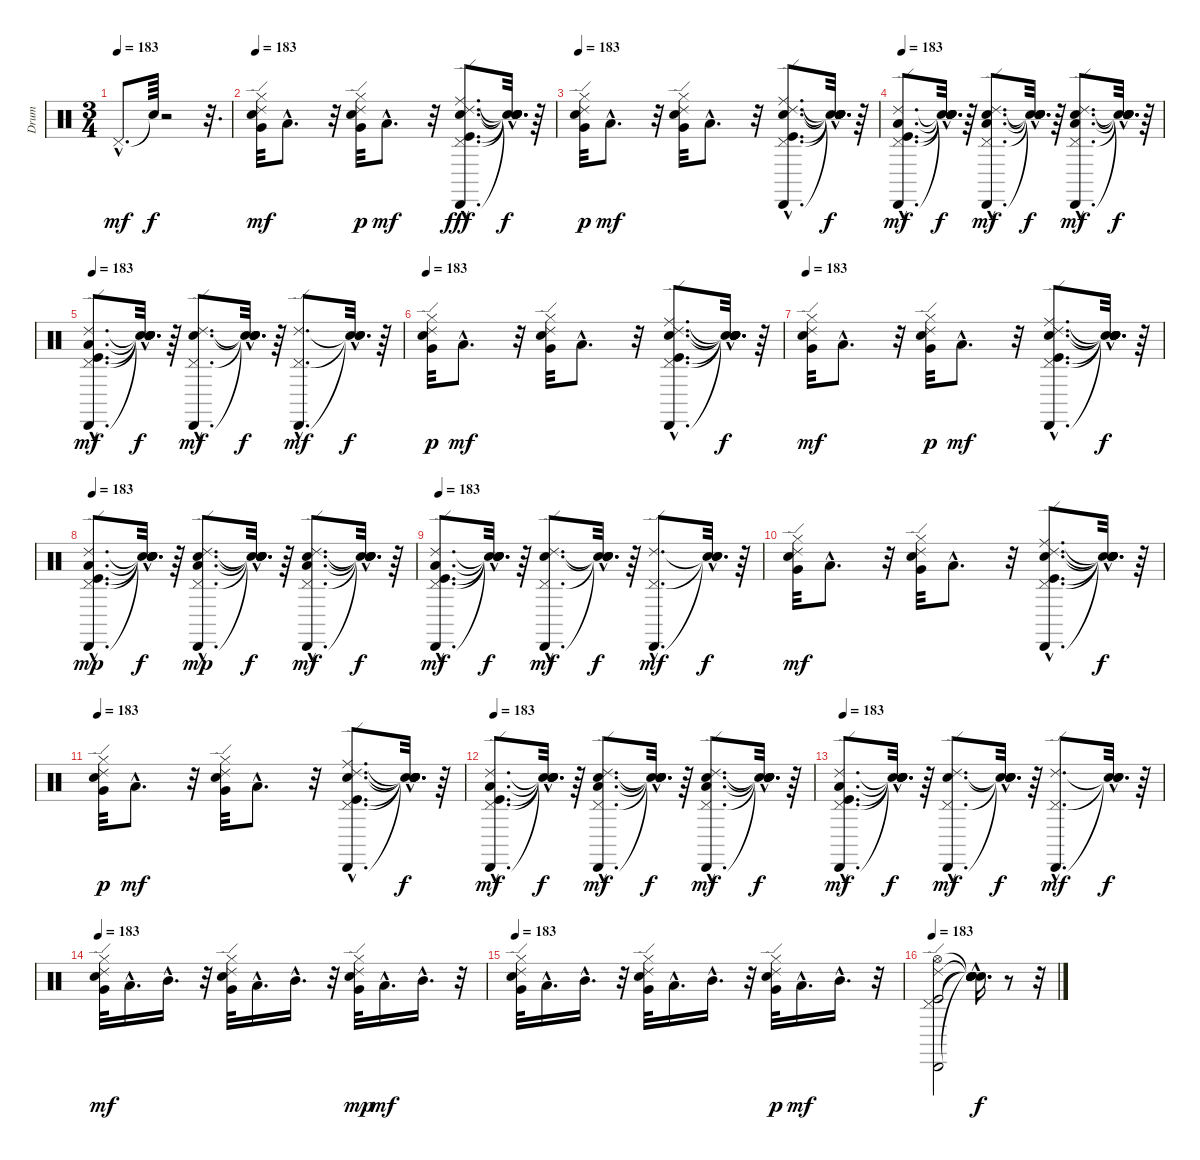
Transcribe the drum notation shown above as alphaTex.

\track ("Drum" "Drum") {instrument percussion}
\staff {score}
\articulation defaults
\ts (3 4)
\tempo 183
\clef neutral
\ks c "Pedal Hi-Hat (hit)"{hac}.8{d dy mf} "Snare (hit)"{t}.64{dy f}
r.2 r.32{d} |
\tempo 183
("Hi-Hat (closed)" "Very Low Tom (hit)" "Electric Snare (hit)" "Ride (edge) 2").32{dy mf} "Low Tom (hit)"{hac}.8{d} r.32 ("Electric Snare (hit)" "Ride (edge) 2" "Very Low Tom (hit)" "Hi-Hat (closed)").32{dy p} "Low Tom (hit)"{hac}.8{d dy mf} r.32 ("Pedal Hi-Hat (hit)"{hac} "Kick (hit)"{hac} "Cabasa (hit)"{hac} "Electric Snare (hit)"{hac} "Ride (middle)"{hac} "Ride (edge) 2"{hac}).8{d dy fff} ("Snare (hit)"{hac t} "Snare (hit)"{hac t} "Snare (hit)"{hac t} "Snare (hit)"{hac t} "Snare (hit)"{hac t} "Snare (hit)"{hac t}).32{d dy f} r.64 |
\tempo 183
("Very Low Tom (hit)" "Hi-Hat (closed)" "Ride (edge) 2" "Electric Snare (hit)").32{dy p} "Low Tom (hit)"{hac}.8{d dy mf} r.32 ("Ride (edge) 2" "Hi-Hat (closed)" "Electric Snare (hit)" "Very Low Tom (hit)").32 "Low Tom (hit)"{hac}.8{d} r.32 ("Ride (edge) 2"{hac} "Ride (middle)"{hac} "Kick (hit)"{hac} "Electric Snare (hit)"{hac} "Pedal Hi-Hat (hit)"{hac} "Cabasa (hit)"{hac}).8{d} ("Snare (hit)"{hac t} "Snare (hit)"{hac t} "Snare (hit)"{hac t} "Snare (hit)"{hac t} "Snare (hit)"{hac t} "Snare (hit)"{hac t}).32{d dy f} r.64 |
\tempo 183
("Ride (edge) 2"{hac} "Kick (hit)"{hac} "Pedal Hi-Hat (hit)"{hac} "Cabasa (hit)"{hac} "Low Tom (hit)"{hac}).8{d dy mf} ("Snare (hit)"{hac t} "Snare (hit)"{hac t} "Snare (hit)"{hac t} "Snare (hit)"{hac t} "Snare (hit)"{hac t}).32{d dy f} r.64 ("Ride (edge) 2"{hac} "Pedal Hi-Hat (hit)"{hac} "Cabasa (hit)"{hac} "Electric Snare (hit)"{hac} "Low Tom (hit)"{hac}).8{d dy mf} ("Snare (hit)"{hac t} "Snare (hit)"{hac t} "Snare (hit)"{hac t} "Snare (hit)"{hac t} "Snare (hit)"{hac t}).32{d dy f} r.64 ("Ride (edge) 2"{hac} "Pedal Hi-Hat (hit)"{hac} "Cabasa (hit)"{hac} "Electric Snare (hit)"{hac} "Low Tom (hit)"{hac}).8{d dy mf} ("Snare (hit)"{hac t} "Snare (hit)"{hac t} "Snare (hit)"{hac t} "Snare (hit)"{hac t} "Snare (hit)"{hac t}).32{d dy f} r.64 |
\tempo 183
("Ride (edge) 2"{hac} "Kick (hit)"{hac} "Pedal Hi-Hat (hit)"{hac} "Cabasa (hit)"{hac} "Low Tom (hit)"{hac}).8{d dy mf} ("Snare (hit)"{hac t} "Snare (hit)"{hac t} "Snare (hit)"{hac t} "Snare (hit)"{hac t} "Snare (hit)"{hac t}).32{d dy f} r.64 ("Ride (edge) 2"{hac} "Pedal Hi-Hat (hit)"{hac} "Cabasa (hit)"{hac} "Electric Snare (hit)"{hac}).8{d dy mf} ("Snare (hit)"{hac t} "Snare (hit)"{hac t} "Snare (hit)"{hac t} "Snare (hit)"{hac t}).32{d dy f} r.64 ("Ride (edge) 2"{hac} "Pedal Hi-Hat (hit)"{hac} "Cabasa (hit)"{hac}).8{d dy mf} ("Snare (hit)"{hac t} "Snare (hit)"{hac t} "Snare (hit)"{hac t}).32{d dy f} r.64 |
\tempo 183
("Ride (edge) 2" "Very Low Tom (hit)" "Hi-Hat (closed)" "Electric Snare (hit)").32{dy p} "Low Tom (hit)"{hac}.8{d dy mf} r.32 ("Ride (edge) 2" "Hi-Hat (closed)" "Very Low Tom (hit)" "Electric Snare (hit)").32 "Low Tom (hit)"{hac}.8{d} r.32 ("Ride (middle)"{hac} "Ride (edge) 2"{hac} "Kick (hit)"{hac} "Pedal Hi-Hat (hit)"{hac} "Cabasa (hit)"{hac} "Electric Snare (hit)"{hac}).8{d} ("Snare (hit)"{hac t} "Snare (hit)"{hac t} "Snare (hit)"{hac t} "Snare (hit)"{hac t} "Snare (hit)"{hac t} "Snare (hit)"{hac t}).32{d dy f} r.64 |
\tempo 183
("Electric Snare (hit)" "Hi-Hat (closed)" "Very Low Tom (hit)" "Ride (edge) 2").32{dy mf} "Low Tom (hit)"{hac}.8{d} r.32 ("Electric Snare (hit)" "Very Low Tom (hit)" "Hi-Hat (closed)" "Ride (edge) 2").32{dy p} "Low Tom (hit)"{hac}.8{d dy mf} r.32 ("Electric Snare (hit)"{hac} "Cabasa (hit)"{hac} "Pedal Hi-Hat (hit)"{hac} "Kick (hit)"{hac} "Ride (edge) 2"{hac} "Ride (middle)"{hac}).8{d} ("Snare (hit)"{hac t} "Snare (hit)"{hac t} "Snare (hit)"{hac t} "Snare (hit)"{hac t} "Snare (hit)"{hac t} "Snare (hit)"{hac t}).32{d dy f} r.64 |
\tempo 183
("Cabasa (hit)"{hac} "Pedal Hi-Hat (hit)"{hac} "Kick (hit)"{hac} "Low Tom (hit)"{hac} "Ride (edge) 2"{hac}).8{d dy mp} ("Snare (hit)"{hac t} "Snare (hit)"{hac t} "Snare (hit)"{hac t} "Snare (hit)"{hac t} "Snare (hit)"{hac t}).32{d dy f} r.64 ("Electric Snare (hit)"{hac} "Low Tom (hit)"{hac} "Pedal Hi-Hat (hit)"{hac} "Cabasa (hit)"{hac} "Ride (edge) 2"{hac}).8{d dy mp} ("Snare (hit)"{hac t} "Snare (hit)"{hac t} "Snare (hit)"{hac t} "Snare (hit)"{hac t} "Snare (hit)"{hac t}).32{d dy f} r.64 ("Low Tom (hit)"{hac} "Electric Snare (hit)"{hac} "Cabasa (hit)"{hac} "Ride (edge) 2"{hac} "Pedal Hi-Hat (hit)"{hac}).8{d dy mf} ("Snare (hit)"{hac t} "Snare (hit)"{hac t} "Snare (hit)"{hac t} "Snare (hit)"{hac t} "Snare (hit)"{hac t}).32{d dy f} r.64 |
\tempo 183
("Ride (edge) 2"{hac} "Kick (hit)"{hac} "Pedal Hi-Hat (hit)"{hac} "Low Tom (hit)"{hac} "Cabasa (hit)"{hac}).8{d dy mf} ("Snare (hit)"{hac t} "Snare (hit)"{hac t} "Snare (hit)"{hac t} "Snare (hit)"{hac t} "Snare (hit)"{hac t}).32{d dy f} r.64 ("Electric Snare (hit)"{hac} "Pedal Hi-Hat (hit)"{hac} "Ride (edge) 2"{hac} "Cabasa (hit)"{hac}).8{d dy mf} ("Snare (hit)"{hac t} "Snare (hit)"{hac t} "Snare (hit)"{hac t} "Snare (hit)"{hac t}).32{d dy f} r.64 ("Cabasa (hit)"{hac} "Ride (edge) 2"{hac} "Pedal Hi-Hat (hit)"{hac}).8{d dy mf} ("Snare (hit)"{hac t} "Snare (hit)"{hac t} "Snare (hit)"{hac t}).32{d dy f} r.64 |
("Electric Snare (hit)" "Hi-Hat (closed)" "Very Low Tom (hit)" "Ride (edge) 2").32{dy mf} "Low Tom (hit)"{hac}.8{d} r.32 ("Ride (edge) 2" "Hi-Hat (closed)" "Electric Snare (hit)" "Very Low Tom (hit)").32 "Low Tom (hit)"{hac}.8{d} r.32 ("Ride (edge) 2"{hac} "Kick (hit)"{hac} "Ride (middle)"{hac} "Pedal Hi-Hat (hit)"{hac} "Electric Snare (hit)"{hac} "Cabasa (hit)"{hac}).8{d} ("Snare (hit)"{hac t} "Snare (hit)"{hac t} "Snare (hit)"{hac t} "Snare (hit)"{hac t} "Snare (hit)"{hac t} "Snare (hit)"{hac t}).32{d dy f} r.64 |
\tempo 183
("Ride (edge) 2" "Very Low Tom (hit)" "Hi-Hat (closed)" "Electric Snare (hit)").32{dy p} "Low Tom (hit)"{hac}.8{d dy mf} r.32 ("Very Low Tom (hit)" "Hi-Hat (closed)" "Ride (edge) 2" "Electric Snare (hit)").32 "Low Tom (hit)"{hac}.8{d} r.32 ("Ride (middle)"{hac} "Pedal Hi-Hat (hit)"{hac} "Kick (hit)"{hac} "Ride (edge) 2"{hac} "Cabasa (hit)"{hac} "Electric Snare (hit)"{hac}).8{d} ("Snare (hit)"{hac t} "Snare (hit)"{hac t} "Snare (hit)"{hac t} "Snare (hit)"{hac t} "Snare (hit)"{hac t} "Snare (hit)"{hac t}).32{d dy f} r.64 |
\tempo 183
("Kick (hit)"{hac} "Ride (edge) 2"{hac} "Low Tom (hit)"{hac} "Cabasa (hit)"{hac} "Pedal Hi-Hat (hit)"{hac}).8{d dy mf} ("Snare (hit)"{hac t} "Snare (hit)"{hac t} "Snare (hit)"{hac t} "Snare (hit)"{hac t} "Snare (hit)"{hac t}).32{d dy f} r.64 ("Ride (edge) 2"{hac} "Cabasa (hit)"{hac} "Electric Snare (hit)"{hac} "Pedal Hi-Hat (hit)"{hac} "Low Tom (hit)"{hac}).8{d dy mf} ("Snare (hit)"{hac t} "Snare (hit)"{hac t} "Snare (hit)"{hac t} "Snare (hit)"{hac t} "Snare (hit)"{hac t}).32{d dy f} r.64 ("Ride (edge) 2"{hac} "Cabasa (hit)"{hac} "Electric Snare (hit)"{hac} "Pedal Hi-Hat (hit)"{hac} "Low Tom (hit)"{hac}).8{d dy mf} ("Snare (hit)"{hac t} "Snare (hit)"{hac t} "Snare (hit)"{hac t} "Snare (hit)"{hac t} "Snare (hit)"{hac t}).32{d dy f} r.64 |
\tempo 183
("Ride (edge) 2"{hac} "Cabasa (hit)"{hac} "Low Tom (hit)"{hac} "Kick (hit)"{hac} "Pedal Hi-Hat (hit)"{hac}).8{d dy mf} ("Snare (hit)"{hac t} "Snare (hit)"{hac t} "Snare (hit)"{hac t} "Snare (hit)"{hac t} "Snare (hit)"{hac t}).32{d dy f} r.64 ("Ride (edge) 2"{hac} "Pedal Hi-Hat (hit)"{hac} "Electric Snare (hit)"{hac} "Cabasa (hit)"{hac}).8{d dy mf} ("Snare (hit)"{hac t} "Snare (hit)"{hac t} "Snare (hit)"{hac t} "Snare (hit)"{hac t}).32{d dy f} r.64 ("Ride (edge) 2"{hac} "Pedal Hi-Hat (hit)"{hac} "Cabasa (hit)"{hac}).8{d dy mf} ("Snare (hit)"{hac t} "Snare (hit)"{hac t} "Snare (hit)"{hac t}).32{d dy f} r.64 |
\tempo 183
("Hi-Hat (closed)" "Electric Snare (hit)" "Ride (edge) 2" "Very Low Tom (hit)").32{dy mf} "Low Tom (hit)"{hac}.16{d} "Mid Tom (hit)"{hac}.16{d} r.32 ("Electric Snare (hit)" "Hi-Hat (closed)" "Ride (edge) 2" "Very Low Tom (hit)").32 "Low Tom (hit)"{hac}.16{d} "Mid Tom (hit)"{hac}.16{d} r.32 ("Hi-Hat (closed)" "Very Low Tom (hit)" "Electric Snare (hit)" "Ride (edge) 2").32{dy mp} "Low Tom (hit)"{hac}.16{d dy mf} "Mid Tom (hit)"{hac}.16{d} r.32 |
\tempo 183
("Hi-Hat (closed)" "Ride (edge) 2" "Electric Snare (hit)" "Very Low Tom (hit)").32 "Low Tom (hit)"{hac}.16{d} "Mid Tom (hit)"{hac}.16{d} r.32 ("Ride (edge) 2" "Hi-Hat (closed)" "Electric Snare (hit)" "Very Low Tom (hit)").32 "Low Tom (hit)"{hac}.16{d} "Mid Tom (hit)"{hac}.16{d} r.32 ("Electric Snare (hit)" "Ride (edge) 2" "Very Low Tom (hit)" "Hi-Hat (closed)").32{dy p} "Low Tom (hit)"{hac}.16{d dy mf} "Mid Tom (hit)"{hac}.16{d} r.32 |
\tempo 183
("Kick (hit)" "Pedal Hi-Hat (hit)" "Ride (edge) 2" "Hi-Hat (open)" "Cabasa (hit)").2 ("Snare (hit)"{hac t} "Snare (hit)"{hac t} "Snare (hit)"{hac t} "Snare (hit)"{hac t} "Snare (hit)"{hac t}).16{d dy f} r.8 r.32
